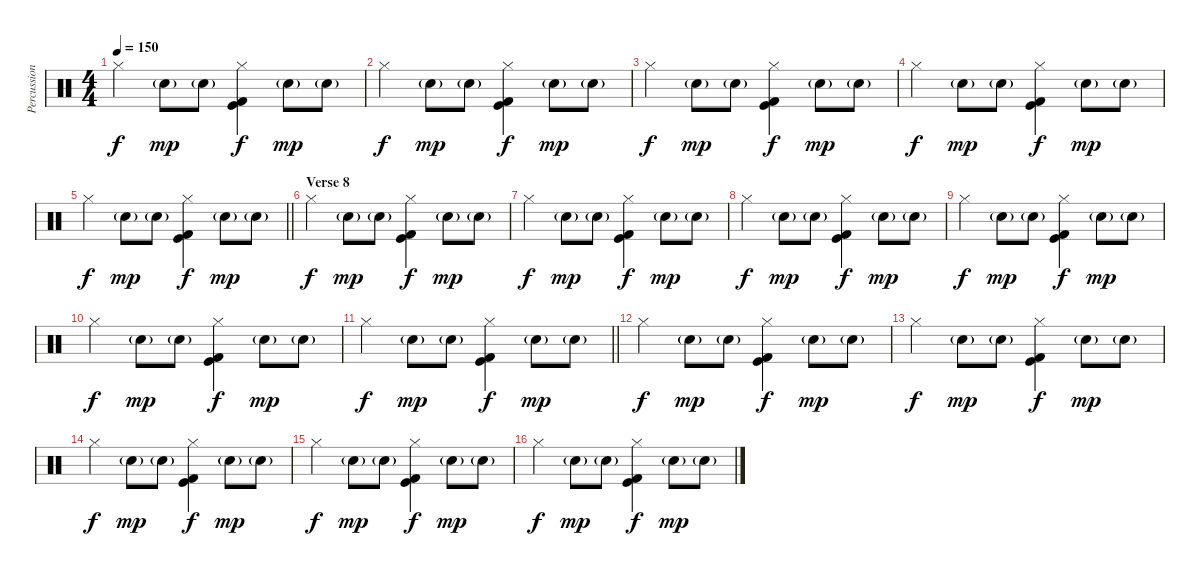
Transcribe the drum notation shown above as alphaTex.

\track ("Percussion" "Percussion") {instrument percussion}
\staff {score}
\articulation defaults
\ts (4 4)
\tempo 150
\clef neutral
\ks c "Hi-Hat (closed)".4{dy f} "Hand Clap (hit)"{g}.8{dy mp} "Hand Clap (hit)"{g}.8
("Hi-Hat (closed)" "Kick (hit)" "Kick (hit) 2").4{dy f} "Hand Clap (hit)"{g}.8{dy mp} "Hand Clap (hit)"{g}.8 |
"Hi-Hat (closed)".4{dy f} "Hand Clap (hit)"{g}.8{dy mp} "Hand Clap (hit)"{g}.8 ("Hi-Hat (closed)" "Kick (hit)" "Kick (hit) 2").4{dy f} "Hand Clap (hit)"{g}.8{dy mp} "Hand Clap (hit)"{g}.8 |
"Hi-Hat (closed)".4{dy f} "Hand Clap (hit)"{g}.8{dy mp} "Hand Clap (hit)"{g}.8 ("Hi-Hat (closed)" "Kick (hit)" "Kick (hit) 2").4{dy f} "Hand Clap (hit)"{g}.8{dy mp} "Hand Clap (hit)"{g}.8 |
"Hi-Hat (closed)".4{dy f} "Hand Clap (hit)"{g}.8{dy mp} "Hand Clap (hit)"{g}.8 ("Hi-Hat (closed)" "Kick (hit)" "Kick (hit) 2").4{dy f} "Hand Clap (hit)"{g}.8{dy mp} "Hand Clap (hit)"{g}.8 |
\barLineRight lightlight "Hi-Hat (closed)".4{dy f} "Hand Clap (hit)"{g}.8{dy mp} "Hand Clap (hit)"{g}.8
("Hi-Hat (closed)" "Kick (hit)" "Kick (hit) 2").4{dy f} "Hand Clap (hit)"{g}.8{dy mp} "Hand Clap (hit)"{g}.8 |
\section ("" "Verse 8")
"Hi-Hat (closed)".4{dy f} "Hand Clap (hit)"{g}.8{dy mp} "Hand Clap (hit)"{g}.8 ("Hi-Hat (closed)" "Kick (hit)" "Kick (hit) 2").4{dy f} "Hand Clap (hit)"{g}.8{dy mp} "Hand Clap (hit)"{g}.8 |
"Hi-Hat (closed)".4{dy f} "Hand Clap (hit)"{g}.8{dy mp} "Hand Clap (hit)"{g}.8 ("Hi-Hat (closed)" "Kick (hit)" "Kick (hit) 2").4{dy f} "Hand Clap (hit)"{g}.8{dy mp} "Hand Clap (hit)"{g}.8 |
"Hi-Hat (closed)".4{dy f} "Hand Clap (hit)"{g}.8{dy mp} "Hand Clap (hit)"{g}.8 ("Hi-Hat (closed)" "Kick (hit)" "Kick (hit) 2").4{dy f} "Hand Clap (hit)"{g}.8{dy mp} "Hand Clap (hit)"{g}.8 |
"Hi-Hat (closed)".4{dy f} "Hand Clap (hit)"{g}.8{dy mp} "Hand Clap (hit)"{g}.8 ("Hi-Hat (closed)" "Kick (hit)" "Kick (hit) 2").4{dy f} "Hand Clap (hit)"{g}.8{dy mp} "Hand Clap (hit)"{g}.8 |
"Hi-Hat (closed)".4{dy f} "Hand Clap (hit)"{g}.8{dy mp} "Hand Clap (hit)"{g}.8 ("Hi-Hat (closed)" "Kick (hit)" "Kick (hit) 2").4{dy f} "Hand Clap (hit)"{g}.8{dy mp} "Hand Clap (hit)"{g}.8 |
\barLineRight lightlight "Hi-Hat (closed)".4{dy f} "Hand Clap (hit)"{g}.8{dy mp} "Hand Clap (hit)"{g}.8
("Hi-Hat (closed)" "Kick (hit)" "Kick (hit) 2").4{dy f} "Hand Clap (hit)"{g}.8{dy mp} "Hand Clap (hit)"{g}.8 |
\section ("" "")
"Hi-Hat (closed)".4{dy f} "Hand Clap (hit)"{g}.8{dy mp} "Hand Clap (hit)"{g}.8 ("Hi-Hat (closed)" "Kick (hit)" "Kick (hit) 2").4{dy f} "Hand Clap (hit)"{g}.8{dy mp} "Hand Clap (hit)"{g}.8 |
"Hi-Hat (closed)".4{dy f} "Hand Clap (hit)"{g}.8{dy mp} "Hand Clap (hit)"{g}.8 ("Hi-Hat (closed)" "Kick (hit)" "Kick (hit) 2").4{dy f} "Hand Clap (hit)"{g}.8{dy mp} "Hand Clap (hit)"{g}.8 |
"Hi-Hat (closed)".4{dy f} "Hand Clap (hit)"{g}.8{dy mp} "Hand Clap (hit)"{g}.8 ("Hi-Hat (closed)" "Kick (hit)" "Kick (hit) 2").4{dy f} "Hand Clap (hit)"{g}.8{dy mp} "Hand Clap (hit)"{g}.8 |
"Hi-Hat (closed)".4{dy f} "Hand Clap (hit)"{g}.8{dy mp} "Hand Clap (hit)"{g}.8 ("Hi-Hat (closed)" "Kick (hit)" "Kick (hit) 2").4{dy f} "Hand Clap (hit)"{g}.8{dy mp} "Hand Clap (hit)"{g}.8 |
"Hi-Hat (closed)".4{dy f} "Hand Clap (hit)"{g}.8{dy mp} "Hand Clap (hit)"{g}.8 ("Hi-Hat (closed)" "Kick (hit)" "Kick (hit) 2").4{dy f} "Hand Clap (hit)"{g}.8{dy mp} "Hand Clap (hit)"{g}.8
